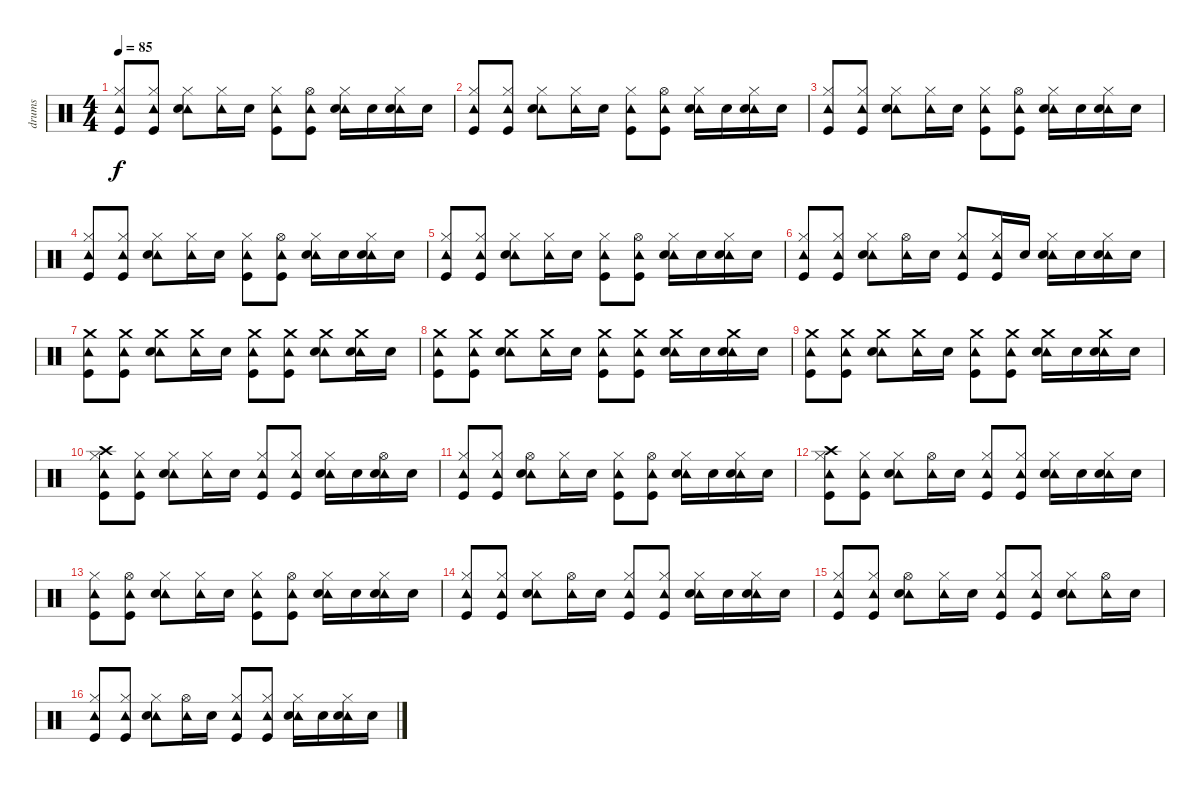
\track ("drums" "drums") {instrument percussion}
\staff {score}
\articulation defaults
\ts (4 4)
\tempo 85
\clef neutral
\ks c
("Tambourine (hit)" "Hi-Hat (closed)" "Kick (hit)").8{dy f} ("Tambourine (hit)" "Hi-Hat (closed)" "Kick (hit)").8 ("Tambourine (hit)" "Hi-Hat (closed)" "Electric Snare (hit)").8 ("Tambourine (hit)" "Hi-Hat (closed)").16 "Electric Snare (hit)".16 ("Tambourine (hit)" "Hi-Hat (closed)" "Kick (hit)").8 ("Tambourine (hit)" "Hi-Hat (open)" "Kick (hit)").8 ("Tambourine (hit)" "Hi-Hat (closed)" "Electric Snare (hit)").16 "Electric Snare (hit)".16 ("Tambourine (hit)" "Hi-Hat (closed)" "Electric Snare (hit)").16 "Electric Snare (hit)".16 |
\section ("" "")
("Tambourine (hit)" "Hi-Hat (closed)" "Kick (hit)").8 ("Tambourine (hit)" "Hi-Hat (closed)" "Kick (hit)").8 ("Tambourine (hit)" "Hi-Hat (closed)" "Electric Snare (hit)").8 ("Tambourine (hit)" "Hi-Hat (closed)").16 "Electric Snare (hit)".16 ("Tambourine (hit)" "Hi-Hat (closed)" "Kick (hit)").8 ("Tambourine (hit)" "Hi-Hat (open)" "Kick (hit)").8 ("Tambourine (hit)" "Hi-Hat (closed)" "Electric Snare (hit)").16 "Electric Snare (hit)".16 ("Tambourine (hit)" "Hi-Hat (closed)" "Electric Snare (hit)").16 "Electric Snare (hit)".16 |
("Tambourine (hit)" "Hi-Hat (closed)" "Kick (hit)").8 ("Tambourine (hit)" "Hi-Hat (closed)" "Kick (hit)").8 ("Tambourine (hit)" "Hi-Hat (closed)" "Electric Snare (hit)").8 ("Tambourine (hit)" "Hi-Hat (closed)").16 "Electric Snare (hit)".16 ("Tambourine (hit)" "Hi-Hat (closed)" "Kick (hit)").8 ("Tambourine (hit)" "Hi-Hat (open)" "Kick (hit)").8 ("Tambourine (hit)" "Hi-Hat (closed)" "Electric Snare (hit)").16 "Electric Snare (hit)".16 ("Tambourine (hit)" "Hi-Hat (closed)" "Electric Snare (hit)").16 "Electric Snare (hit)".16 |
("Tambourine (hit)" "Hi-Hat (closed)" "Kick (hit)").8 ("Tambourine (hit)" "Hi-Hat (closed)" "Kick (hit)").8 ("Tambourine (hit)" "Hi-Hat (closed)" "Electric Snare (hit)").8 ("Tambourine (hit)" "Hi-Hat (closed)").16 "Electric Snare (hit)".16 ("Tambourine (hit)" "Hi-Hat (closed)" "Kick (hit)").8 ("Tambourine (hit)" "Hi-Hat (open)" "Kick (hit)").8 ("Tambourine (hit)" "Hi-Hat (closed)" "Electric Snare (hit)").16 "Electric Snare (hit)".16 ("Tambourine (hit)" "Hi-Hat (closed)" "Electric Snare (hit)").16 "Electric Snare (hit)".16 |
("Tambourine (hit)" "Hi-Hat (closed)" "Kick (hit)").8 ("Tambourine (hit)" "Hi-Hat (closed)" "Kick (hit)").8 ("Tambourine (hit)" "Hi-Hat (closed)" "Electric Snare (hit)").8 ("Tambourine (hit)" "Hi-Hat (closed)").16 "Electric Snare (hit)".16 ("Tambourine (hit)" "Hi-Hat (closed)" "Kick (hit)").8 ("Tambourine (hit)" "Hi-Hat (open)" "Kick (hit)").8 ("Tambourine (hit)" "Hi-Hat (closed)" "Electric Snare (hit)").16 "Electric Snare (hit)".16 ("Tambourine (hit)" "Hi-Hat (closed)" "Electric Snare (hit)").16 "Electric Snare (hit)".16 |
\section ("" "")
("Tambourine (hit)" "Hi-Hat (closed)" "Kick (hit)").8 ("Tambourine (hit)" "Hi-Hat (closed)" "Kick (hit)").8 ("Tambourine (hit)" "Hi-Hat (closed)" "Electric Snare (hit)").8 ("Tambourine (hit)" "Hi-Hat (open)").16 "Electric Snare (hit)".16 ("Tambourine (hit)" "Hi-Hat (closed)" "Kick (hit)").8 ("Tambourine (hit)" "Hi-Hat (closed)" "Kick (hit)").16 "Electric Snare (hit)".16 ("Tambourine (hit)" "Hi-Hat (closed)" "Electric Snare (hit)").16 "Electric Snare (hit)".16 ("Tambourine (hit)" "Hi-Hat (closed)" "Electric Snare (hit)").16 "Electric Snare (hit)".16 |
("Tambourine (hit)" "Crash medium (hit)" "Kick (hit)").8 ("Tambourine (hit)" "Crash medium (hit)" "Kick (hit)").8 ("Tambourine (hit)" "Crash medium (hit)" "Electric Snare (hit)").8 ("Tambourine (hit)" "Crash medium (hit)").16 "Electric Snare (hit)".16 ("Tambourine (hit)" "Crash medium (hit)" "Kick (hit)").8 ("Tambourine (hit)" "Crash medium (hit)" "Kick (hit)").8 ("Tambourine (hit)" "Crash medium (hit)" "Electric Snare (hit)").8 ("Tambourine (hit)" "Crash medium (hit)" "Electric Snare (hit)").16 "Electric Snare (hit)".16 |
("Tambourine (hit)" "Crash medium (hit)" "Kick (hit)").8 ("Tambourine (hit)" "Crash medium (hit)" "Kick (hit)").8 ("Tambourine (hit)" "Crash medium (hit)" "Electric Snare (hit)").8 ("Tambourine (hit)" "Crash medium (hit)").16 "Electric Snare (hit)".16 ("Tambourine (hit)" "Crash medium (hit)" "Kick (hit)").8 ("Tambourine (hit)" "Crash medium (hit)" "Kick (hit)").8 ("Tambourine (hit)" "Crash medium (hit)" "Electric Snare (hit)").16 "Electric Snare (hit)".16 ("Tambourine (hit)" "Crash medium (hit)" "Electric Snare (hit)").16 "Electric Snare (hit)".16 |
("Tambourine (hit)" "Crash medium (hit)" "Kick (hit)").8 ("Tambourine (hit)" "Crash medium (hit)" "Kick (hit)").8 ("Tambourine (hit)" "Crash medium (hit)" "Electric Snare (hit)").8 ("Tambourine (hit)" "Crash medium (hit)").16 "Electric Snare (hit)".16 ("Tambourine (hit)" "Crash medium (hit)" "Kick (hit)").8 ("Tambourine (hit)" "Crash medium (hit)" "Kick (hit)").8 ("Tambourine (hit)" "Crash medium (hit)" "Electric Snare (hit)").16 "Electric Snare (hit)".16 ("Tambourine (hit)" "Crash medium (hit)" "Electric Snare (hit)").16 "Electric Snare (hit)".16 |
\section ("" "")
("Tambourine (hit)" "Hi-Hat (closed)" "Crash high (hit)" "Kick (hit)").8 ("Tambourine (hit)" "Hi-Hat (closed)" "Kick (hit)").8 ("Tambourine (hit)" "Hi-Hat (closed)" "Electric Snare (hit)").8 ("Tambourine (hit)" "Hi-Hat (closed)").16 "Electric Snare (hit)".16 ("Tambourine (hit)" "Hi-Hat (closed)" "Kick (hit)").8 ("Tambourine (hit)" "Hi-Hat (closed)" "Kick (hit)").8 ("Tambourine (hit)" "Hi-Hat (closed)" "Electric Snare (hit)").16 "Electric Snare (hit)".16 ("Tambourine (hit)" "Hi-Hat (open)" "Electric Snare (hit)").16 "Electric Snare (hit)".16 |
("Tambourine (hit)" "Hi-Hat (closed)" "Kick (hit)").8 ("Tambourine (hit)" "Hi-Hat (closed)" "Kick (hit)").8 ("Tambourine (hit)" "Hi-Hat (open)" "Electric Snare (hit)").8 ("Tambourine (hit)" "Hi-Hat (closed)").16 "Electric Snare (hit)".16 ("Tambourine (hit)" "Hi-Hat (closed)" "Kick (hit)").8 ("Tambourine (hit)" "Hi-Hat (open)" "Kick (hit)").8 ("Tambourine (hit)" "Hi-Hat (closed)" "Electric Snare (hit)").16 "Electric Snare (hit)".16 ("Tambourine (hit)" "Hi-Hat (closed)" "Electric Snare (hit)").16 "Electric Snare (hit)".16 |
("Tambourine (hit)" "Hi-Hat (closed)" "Crash high (hit)" "Kick (hit)").8 ("Tambourine (hit)" "Hi-Hat (closed)" "Kick (hit)").8 ("Tambourine (hit)" "Hi-Hat (closed)" "Electric Snare (hit)").8 ("Tambourine (hit)" "Hi-Hat (open)").16 "Electric Snare (hit)".16 ("Tambourine (hit)" "Hi-Hat (closed)" "Kick (hit)").8 ("Tambourine (hit)" "Hi-Hat (closed)" "Kick (hit)").8 ("Tambourine (hit)" "Hi-Hat (closed)" "Electric Snare (hit)").16 "Electric Snare (hit)".16 ("Tambourine (hit)" "Hi-Hat (closed)" "Electric Snare (hit)").16 "Electric Snare (hit)".16 |
("Tambourine (hit)" "Hi-Hat (closed)" "Kick (hit)").8 ("Tambourine (hit)" "Hi-Hat (open)" "Kick (hit)").8 ("Tambourine (hit)" "Hi-Hat (closed)" "Electric Snare (hit)").8 ("Tambourine (hit)" "Hi-Hat (closed)").16 "Electric Snare (hit)".16 ("Tambourine (hit)" "Hi-Hat (closed)" "Kick (hit)").8 ("Tambourine (hit)" "Hi-Hat (open)" "Kick (hit)").8 ("Tambourine (hit)" "Hi-Hat (closed)" "Electric Snare (hit)").16 "Electric Snare (hit)".16 ("Tambourine (hit)" "Hi-Hat (closed)" "Electric Snare (hit)").16 "Electric Snare (hit)".16 |
("Tambourine (hit)" "Hi-Hat (closed)" "Kick (hit)").8 ("Tambourine (hit)" "Hi-Hat (closed)" "Kick (hit)").8 ("Tambourine (hit)" "Hi-Hat (closed)" "Electric Snare (hit)").8 ("Tambourine (hit)" "Hi-Hat (open)").16 "Electric Snare (hit)".16 ("Tambourine (hit)" "Hi-Hat (closed)" "Kick (hit)").8 ("Tambourine (hit)" "Hi-Hat (closed)" "Kick (hit)").8 ("Tambourine (hit)" "Hi-Hat (closed)" "Electric Snare (hit)").16 "Electric Snare (hit)".16 ("Tambourine (hit)" "Hi-Hat (closed)" "Electric Snare (hit)").16 "Electric Snare (hit)".16 |
("Tambourine (hit)" "Hi-Hat (closed)" "Kick (hit)").8 ("Tambourine (hit)" "Hi-Hat (closed)" "Kick (hit)").8 ("Tambourine (hit)" "Hi-Hat (open)" "Electric Snare (hit)").8 ("Tambourine (hit)" "Hi-Hat (closed)").16 "Electric Snare (hit)".16 ("Tambourine (hit)" "Hi-Hat (closed)" "Kick (hit)").8 ("Tambourine (hit)" "Hi-Hat (closed)" "Kick (hit)").8 ("Tambourine (hit)" "Hi-Hat (closed)" "Electric Snare (hit)").8 ("Tambourine (hit)" "Hi-Hat (open)").16 "Electric Snare (hit)".16 |
\section ("" "")
("Tambourine (hit)" "Hi-Hat (closed)" "Kick (hit)").8 ("Tambourine (hit)" "Hi-Hat (closed)" "Kick (hit)").8 ("Tambourine (hit)" "Hi-Hat (closed)" "Electric Snare (hit)").8 ("Tambourine (hit)" "Hi-Hat (open)").16 "Electric Snare (hit)".16 ("Tambourine (hit)" "Hi-Hat (closed)" "Kick (hit)").8 ("Tambourine (hit)" "Hi-Hat (closed)" "Kick (hit)").8 ("Tambourine (hit)" "Hi-Hat (closed)" "Electric Snare (hit)").16 "Electric Snare (hit)".16 ("Tambourine (hit)" "Hi-Hat (closed)" "Electric Snare (hit)").16 "Electric Snare (hit)".16
